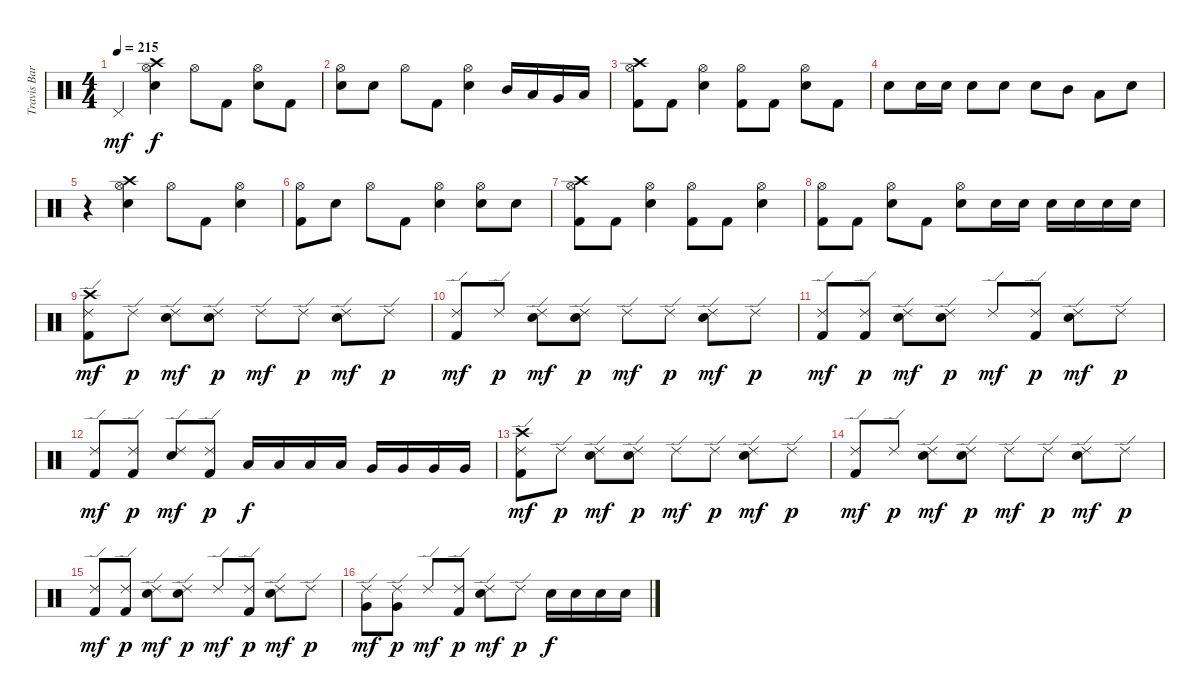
\track ("Travis Barker" "Travis Bar") {instrument percussion}
\staff {score}
\articulation defaults
\ts (4 4)
\tempo 215
\clef neutral
\ks c "Pedal Hi-Hat (hit)".4{dy mf}
("Crash high (hit)" "Hi-Hat (open)" "Snare (hit) 2").4{dy f} "Hi-Hat (open)".8 "Kick (hit) 2".8 ("Hi-Hat (open)" "Snare (hit) 2").8 "Kick (hit) 2".8 |
("Hi-Hat (open)" "Snare (hit) 2").8 "Snare (hit) 2".8 "Hi-Hat (open)".8 "Kick (hit) 2".8 ("Hi-Hat (open)" "Snare (hit) 2").4 "Mid Tom (hit)".16 "Low Tom (hit)".16 "Very Low Tom (hit)".16 "Low Floor Tom (hit)".16 |
("Crash high (hit)" "Hi-Hat (open)" "Kick (hit) 2").8 "Kick (hit) 2".8 ("Hi-Hat (open)" "Snare (hit) 2").4 ("Hi-Hat (open)" "Kick (hit) 2").8 "Kick (hit) 2".8 ("Hi-Hat (open)" "Snare (hit) 2").8 "Kick (hit) 2".8 |
"Snare (hit) 2".8 "Snare (hit) 2".16 "Snare (hit) 2".16 "Snare (hit) 2".8 "Snare (hit) 2".8 "Snare (hit) 2".8 "Mid Tom (hit)".8 "Low Tom (hit)".8 "Snare (hit) 2".8 |
r.4 ("Crash high (hit)" "Hi-Hat (open)" "Snare (hit) 2").4 "Hi-Hat (open)".8 "Kick (hit) 2".8 ("Hi-Hat (open)" "Snare (hit) 2").4 |
("Hi-Hat (open)" "Kick (hit) 2").8 "Snare (hit) 2".8 "Hi-Hat (open)".8 "Kick (hit) 2".8 ("Hi-Hat (open)" "Snare (hit) 2").4 ("Hi-Hat (open)" "Snare (hit) 2").8 "Snare (hit) 2".8 |
("Crash high (hit)" "Hi-Hat (open)" "Kick (hit) 2").8 "Kick (hit) 2".8 ("Hi-Hat (open)" "Snare (hit) 2").4 ("Hi-Hat (open)" "Kick (hit) 2").8 "Kick (hit) 2".8 ("Hi-Hat (open)" "Snare (hit) 2").4 |
("Hi-Hat (open)" "Kick (hit) 2").8 "Kick (hit) 2".8 ("Hi-Hat (open)" "Snare (hit) 2").8 "Kick (hit) 2".8 ("Hi-Hat (open)" "Snare (hit) 2").8 "Snare (hit) 2".16 "Snare (hit) 2".16 "Snare (hit) 2".16 "Snare (hit) 2".16 "Snare (hit) 2".16 "Snare (hit) 2".16 |
("Crash high (hit)" "Ride (edge) 2" "Kick (hit) 2").8{dy mf} "Ride (edge) 2".8{dy p} ("Ride (edge) 2" "Snare (hit) 2").8{dy mf} ("Ride (edge) 2" "Snare (hit) 2").8{dy p} "Ride (edge) 2".8{dy mf} "Ride (edge) 2".8{dy p} ("Ride (edge) 2" "Snare (hit) 2").8{dy mf} "Ride (edge) 2".8{dy p} |
("Ride (edge) 2" "Kick (hit) 2").8{dy mf} "Ride (edge) 2".8{dy p} ("Ride (edge) 2" "Snare (hit) 2").8{dy mf} ("Ride (edge) 2" "Snare (hit) 2").8{dy p} "Ride (edge) 2".8{dy mf} "Ride (edge) 2".8{dy p} ("Ride (edge) 2" "Snare (hit) 2").8{dy mf} "Ride (edge) 2".8{dy p} |
("Ride (edge) 2" "Kick (hit) 2").8{dy mf} ("Ride (edge) 2" "Kick (hit) 2").8{dy p} ("Ride (edge) 2" "Snare (hit) 2").8{dy mf} ("Ride (edge) 2" "Snare (hit) 2").8{dy p} "Ride (edge) 2".8{dy mf} ("Ride (edge) 2" "Kick (hit) 2").8{dy p} ("Ride (edge) 2" "Snare (hit) 2").8{dy mf} "Ride (edge) 2".8{dy p} |
("Ride (edge) 2" "Kick (hit) 2").8{dy mf} ("Ride (edge) 2" "Kick (hit) 2").8{dy p} ("Ride (edge) 2" "Snare (hit) 2").8{dy mf} ("Ride (edge) 2" "Kick (hit) 2").8{dy p} "Low Tom (hit)".16{dy f} "Low Tom (hit)".16 "Low Tom (hit)".16 "Low Tom (hit)".16 "Very Low Tom (hit)".16 "Very Low Tom (hit)".16 "Very Low Tom (hit)".16 "Very Low Tom (hit)".16 |
("Crash high (hit)" "Ride (edge) 2" "Kick (hit) 2").8{dy mf} "Ride (edge) 2".8{dy p} ("Ride (edge) 2" "Snare (hit) 2").8{dy mf} ("Ride (edge) 2" "Snare (hit) 2").8{dy p} "Ride (edge) 2".8{dy mf} "Ride (edge) 2".8{dy p} ("Ride (edge) 2" "Snare (hit) 2").8{dy mf} "Ride (edge) 2".8{dy p} |
("Ride (edge) 2" "Kick (hit) 2").8{dy mf} "Ride (edge) 2".8{dy p} ("Ride (edge) 2" "Snare (hit) 2").8{dy mf} ("Ride (edge) 2" "Snare (hit) 2").8{dy p} "Ride (edge) 2".8{dy mf} "Ride (edge) 2".8{dy p} ("Ride (edge) 2" "Snare (hit) 2").8{dy mf} "Ride (edge) 2".8{dy p} |
("Ride (edge) 2" "Kick (hit) 2").8{dy mf} ("Ride (edge) 2" "Kick (hit) 2").8{dy p} ("Ride (edge) 2" "Snare (hit) 2").8{dy mf} ("Ride (edge) 2" "Snare (hit) 2").8{dy p} "Ride (edge) 2".8{dy mf} ("Ride (edge) 2" "Kick (hit) 2").8{dy p} ("Ride (edge) 2" "Snare (hit) 2").8{dy mf} "Ride (edge) 2".8{dy p} |
("Ride (edge) 2" "Very Low Tom (hit)").8{dy mf} ("Ride (edge) 2" "Very Low Tom (hit)").8{dy p} "Ride (edge) 2".8{dy mf} ("Ride (edge) 2" "Kick (hit) 2").8{dy p} ("Ride (edge) 2" "Snare (hit) 2").8{dy mf} "Ride (edge) 2".8{dy p} "Snare (hit) 2".16{dy f} "Snare (hit) 2".16 "Snare (hit) 2".16 "Snare (hit) 2".16
